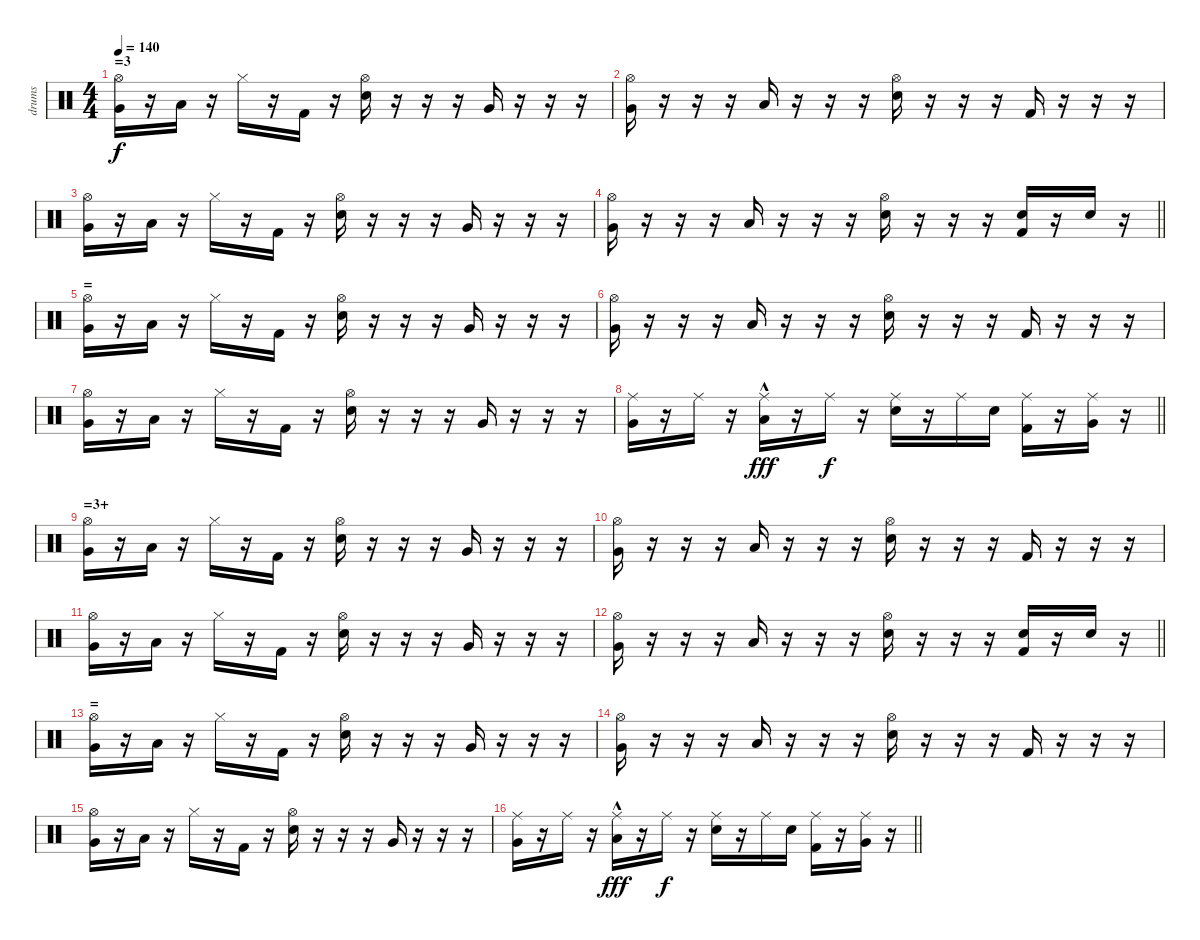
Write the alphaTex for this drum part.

\track ("drums" "drums") {instrument percussion}
\staff {score}
\articulation defaults
\ts (4 4)
\section ("" "=3")
\tempo 140
\clef neutral
\ks c
("Very Low Tom (hit)" "Hi-Hat (open)").16{dy f} r.16 "Low Floor Tom (hit)".16 r.16 "Hi-Hat (closed)".16 r.16 "Kick (hit) 2".16 r.16 ("Electric Snare (hit)" "Hi-Hat (open)").16 r.16 r.16 r.16 "Very Low Tom (hit)".16 r.16 r.16 r.16 |
("Very Low Tom (hit)" "Hi-Hat (open)").16 r.16 r.16 r.16 "Low Floor Tom (hit)".16 r.16 r.16 r.16 ("Electric Snare (hit)" "Hi-Hat (open)").16 r.16 r.16 r.16 "Kick (hit) 2".16 r.16 r.16 r.16 |
("Very Low Tom (hit)" "Hi-Hat (open)").16 r.16 "Low Floor Tom (hit)".16 r.16 "Hi-Hat (closed)".16 r.16 "Kick (hit) 2".16 r.16 ("Electric Snare (hit)" "Hi-Hat (open)").16 r.16 r.16 r.16 "Very Low Tom (hit)".16 r.16 r.16 r.16 |
\barLineRight lightlight
("Very Low Tom (hit)" "Hi-Hat (open)").16 r.16 r.16 r.16 "Low Floor Tom (hit)".16 r.16 r.16 r.16 ("Electric Snare (hit)" "Hi-Hat (open)").16 r.16 r.16 r.16 ("Kick (hit) 2" "Electric Snare (hit)").16 r.16 "Electric Snare (hit)".16 r.16 |
\section ("" "=")
("Very Low Tom (hit)" "Hi-Hat (open)").16 r.16 "Low Floor Tom (hit)".16 r.16 "Hi-Hat (closed)".16 r.16 "Kick (hit) 2".16 r.16 ("Electric Snare (hit)" "Hi-Hat (open)").16 r.16 r.16 r.16 "Very Low Tom (hit)".16 r.16 r.16 r.16 |
("Very Low Tom (hit)" "Hi-Hat (open)").16 r.16 r.16 r.16 "Low Floor Tom (hit)".16 r.16 r.16 r.16 ("Electric Snare (hit)" "Hi-Hat (open)").16 r.16 r.16 r.16 "Kick (hit) 2".16 r.16 r.16 r.16 |
("Very Low Tom (hit)" "Hi-Hat (open)").16 r.16 "Low Floor Tom (hit)".16 r.16 "Hi-Hat (closed)".16 r.16 "Kick (hit) 2".16 r.16 ("Electric Snare (hit)" "Hi-Hat (open)").16 r.16 r.16 r.16 "Very Low Tom (hit)".16 r.16 r.16 r.16 |
\barLineRight lightlight
("Very Low Tom (hit)" "Ride (middle)").16 r.16 "Ride (middle)".16 r.16 ("Low Floor Tom (hit)" "Ride (middle)"{hac}).16{dy fff} r.16 "Ride (middle)".16{dy f} r.16 ("Electric Snare (hit)" "Ride (middle)").16 r.16 "Ride (middle)".16 "Electric Snare (hit)".16 ("Kick (hit) 2" "Ride (middle)").16 r.16 ("Very Low Tom (hit)" "Ride (middle)").16 r.16 |
\section ("" "=3+")
("Very Low Tom (hit)" "Hi-Hat (open)").16 r.16 "Low Floor Tom (hit)".16 r.16 "Hi-Hat (closed)".16 r.16 "Kick (hit) 2".16 r.16 ("Electric Snare (hit)" "Hi-Hat (open)").16 r.16 r.16 r.16 "Very Low Tom (hit)".16 r.16 r.16 r.16 |
("Very Low Tom (hit)" "Hi-Hat (open)").16 r.16 r.16 r.16 "Low Floor Tom (hit)".16 r.16 r.16 r.16 ("Electric Snare (hit)" "Hi-Hat (open)").16 r.16 r.16 r.16 "Kick (hit) 2".16 r.16 r.16 r.16 |
("Very Low Tom (hit)" "Hi-Hat (open)").16 r.16 "Low Floor Tom (hit)".16 r.16 "Hi-Hat (closed)".16 r.16 "Kick (hit) 2".16 r.16 ("Electric Snare (hit)" "Hi-Hat (open)").16 r.16 r.16 r.16 "Very Low Tom (hit)".16 r.16 r.16 r.16 |
\barLineRight lightlight
("Very Low Tom (hit)" "Hi-Hat (open)").16 r.16 r.16 r.16 "Low Floor Tom (hit)".16 r.16 r.16 r.16 ("Electric Snare (hit)" "Hi-Hat (open)").16 r.16 r.16 r.16 ("Kick (hit) 2" "Electric Snare (hit)").16 r.16 "Electric Snare (hit)".16 r.16 |
\section ("" "=")
("Very Low Tom (hit)" "Hi-Hat (open)").16 r.16 "Low Floor Tom (hit)".16 r.16 "Hi-Hat (closed)".16 r.16 "Kick (hit) 2".16 r.16 ("Electric Snare (hit)" "Hi-Hat (open)").16 r.16 r.16 r.16 "Very Low Tom (hit)".16 r.16 r.16 r.16 |
("Very Low Tom (hit)" "Hi-Hat (open)").16 r.16 r.16 r.16 "Low Floor Tom (hit)".16 r.16 r.16 r.16 ("Electric Snare (hit)" "Hi-Hat (open)").16 r.16 r.16 r.16 "Kick (hit) 2".16 r.16 r.16 r.16 |
("Very Low Tom (hit)" "Hi-Hat (open)").16 r.16 "Low Floor Tom (hit)".16 r.16 "Hi-Hat (closed)".16 r.16 "Kick (hit) 2".16 r.16 ("Electric Snare (hit)" "Hi-Hat (open)").16 r.16 r.16 r.16 "Very Low Tom (hit)".16 r.16 r.16 r.16 |
\barLineRight lightlight
("Very Low Tom (hit)" "Ride (middle)").16 r.16 "Ride (middle)".16 r.16 ("Low Floor Tom (hit)" "Ride (middle)"{hac}).16{dy fff} r.16 "Ride (middle)".16{dy f} r.16 ("Electric Snare (hit)" "Ride (middle)").16 r.16 "Ride (middle)".16 "Electric Snare (hit)".16 ("Kick (hit) 2" "Ride (middle)").16 r.16 ("Very Low Tom (hit)" "Ride (middle)").16 r.16
